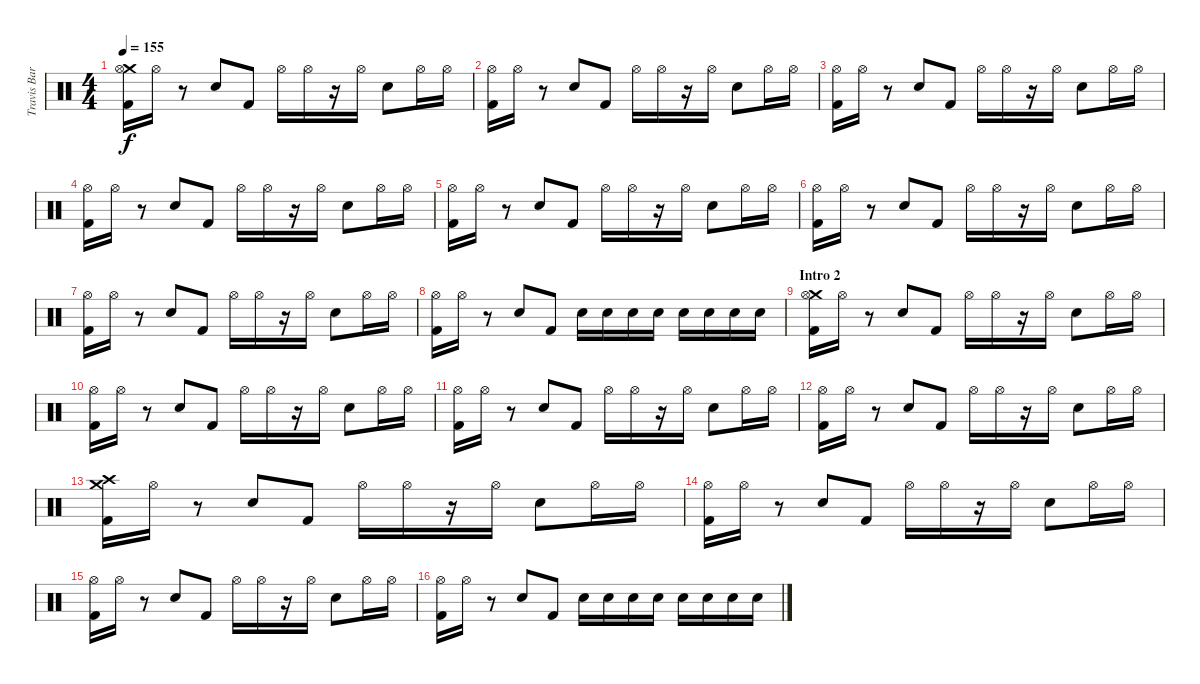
\track ("Travis Barker Drums" "Travis Bar") {instrument percussion}
\staff {score}
\articulation defaults
\ts (4 4)
\tempo 155
\clef neutral
\ks c
("Crash medium (hit)" "Hi-Hat (open)" "Kick (hit) 2").16{dy f} "Hi-Hat (open)".16 r.8 "Electric Snare (hit)".8 "Kick (hit) 2".8 "Hi-Hat (open)".16 "Hi-Hat (open)".16 r.16 "Hi-Hat (open)".16 "Electric Snare (hit)".8 "Hi-Hat (open)".16 "Hi-Hat (open)".16 |
("Hi-Hat (open)" "Kick (hit) 2").16 "Hi-Hat (open)".16 r.8 "Electric Snare (hit)".8 "Kick (hit) 2".8 "Hi-Hat (open)".16 "Hi-Hat (open)".16 r.16 "Hi-Hat (open)".16 "Electric Snare (hit)".8 "Hi-Hat (open)".16 "Hi-Hat (open)".16 |
("Hi-Hat (open)" "Kick (hit) 2").16 "Hi-Hat (open)".16 r.8 "Electric Snare (hit)".8 "Kick (hit) 2".8 "Hi-Hat (open)".16 "Hi-Hat (open)".16 r.16 "Hi-Hat (open)".16 "Electric Snare (hit)".8 "Hi-Hat (open)".16 "Hi-Hat (open)".16 |
("Hi-Hat (open)" "Kick (hit) 2").16 "Hi-Hat (open)".16 r.8 "Electric Snare (hit)".8 "Kick (hit) 2".8 "Hi-Hat (open)".16 "Hi-Hat (open)".16 r.16 "Hi-Hat (open)".16 "Electric Snare (hit)".8 "Hi-Hat (open)".16 "Hi-Hat (open)".16 |
("Hi-Hat (open)" "Kick (hit) 2").16 "Hi-Hat (open)".16 r.8 "Electric Snare (hit)".8 "Kick (hit) 2".8 "Hi-Hat (open)".16 "Hi-Hat (open)".16 r.16 "Hi-Hat (open)".16 "Electric Snare (hit)".8 "Hi-Hat (open)".16 "Hi-Hat (open)".16 |
("Hi-Hat (open)" "Kick (hit) 2").16 "Hi-Hat (open)".16 r.8 "Electric Snare (hit)".8 "Kick (hit) 2".8 "Hi-Hat (open)".16 "Hi-Hat (open)".16 r.16 "Hi-Hat (open)".16 "Electric Snare (hit)".8 "Hi-Hat (open)".16 "Hi-Hat (open)".16 |
("Hi-Hat (open)" "Kick (hit) 2").16 "Hi-Hat (open)".16 r.8 "Electric Snare (hit)".8 "Kick (hit) 2".8 "Hi-Hat (open)".16 "Hi-Hat (open)".16 r.16 "Hi-Hat (open)".16 "Electric Snare (hit)".8 "Hi-Hat (open)".16 "Hi-Hat (open)".16 |
("Hi-Hat (open)" "Kick (hit) 2").16 "Hi-Hat (open)".16 r.8 "Electric Snare (hit)".8 "Kick (hit) 2".8 "Electric Snare (hit)".16 "Electric Snare (hit)".16 "Electric Snare (hit)".16 "Electric Snare (hit)".16 "Electric Snare (hit)".16 "Electric Snare (hit)".16 "Electric Snare (hit)".16 "Electric Snare (hit)".16 |
\section ("" "Intro 2")
("Crash medium (hit)" "Hi-Hat (open)" "Kick (hit) 2").16 "Hi-Hat (open)".16 r.8 "Electric Snare (hit)".8 "Kick (hit) 2".8 "Hi-Hat (open)".16 "Hi-Hat (open)".16 r.16 "Hi-Hat (open)".16 "Electric Snare (hit)".8 "Hi-Hat (open)".16 "Hi-Hat (open)".16 |
("Hi-Hat (open)" "Kick (hit) 2").16 "Hi-Hat (open)".16 r.8 "Electric Snare (hit)".8 "Kick (hit) 2".8 "Hi-Hat (open)".16 "Hi-Hat (open)".16 r.16 "Hi-Hat (open)".16 "Electric Snare (hit)".8 "Hi-Hat (open)".16 "Hi-Hat (open)".16 |
("Hi-Hat (open)" "Kick (hit) 2").16 "Hi-Hat (open)".16 r.8 "Electric Snare (hit)".8 "Kick (hit) 2".8 "Hi-Hat (open)".16 "Hi-Hat (open)".16 r.16 "Hi-Hat (open)".16 "Electric Snare (hit)".8 "Hi-Hat (open)".16 "Hi-Hat (open)".16 |
("Hi-Hat (open)" "Kick (hit) 2").16 "Hi-Hat (open)".16 r.8 "Electric Snare (hit)".8 "Kick (hit) 2".8 "Hi-Hat (open)".16 "Hi-Hat (open)".16 r.16 "Hi-Hat (open)".16 "Electric Snare (hit)".8 "Hi-Hat (open)".16 "Hi-Hat (open)".16 |
("Crash medium (hit)" "Crash high (hit)" "Kick (hit) 2").16 "Hi-Hat (open)".16 r.8 "Electric Snare (hit)".8 "Kick (hit) 2".8 "Hi-Hat (open)".16 "Hi-Hat (open)".16 r.16 "Hi-Hat (open)".16 "Electric Snare (hit)".8 "Hi-Hat (open)".16 "Hi-Hat (open)".16 |
("Hi-Hat (open)" "Kick (hit) 2").16 "Hi-Hat (open)".16 r.8 "Electric Snare (hit)".8 "Kick (hit) 2".8 "Hi-Hat (open)".16 "Hi-Hat (open)".16 r.16 "Hi-Hat (open)".16 "Electric Snare (hit)".8 "Hi-Hat (open)".16 "Hi-Hat (open)".16 |
("Hi-Hat (open)" "Kick (hit) 2").16 "Hi-Hat (open)".16 r.8 "Electric Snare (hit)".8 "Kick (hit) 2".8 "Hi-Hat (open)".16 "Hi-Hat (open)".16 r.16 "Hi-Hat (open)".16 "Electric Snare (hit)".8 "Hi-Hat (open)".16 "Hi-Hat (open)".16 |
("Hi-Hat (open)" "Kick (hit) 2").16 "Hi-Hat (open)".16 r.8 "Electric Snare (hit)".8 "Kick (hit) 2".8 "Electric Snare (hit)".16 "Electric Snare (hit)".16 "Electric Snare (hit)".16 "Electric Snare (hit)".16 "Electric Snare (hit)".16 "Electric Snare (hit)".16 "Electric Snare (hit)".16 "Electric Snare (hit)".16
